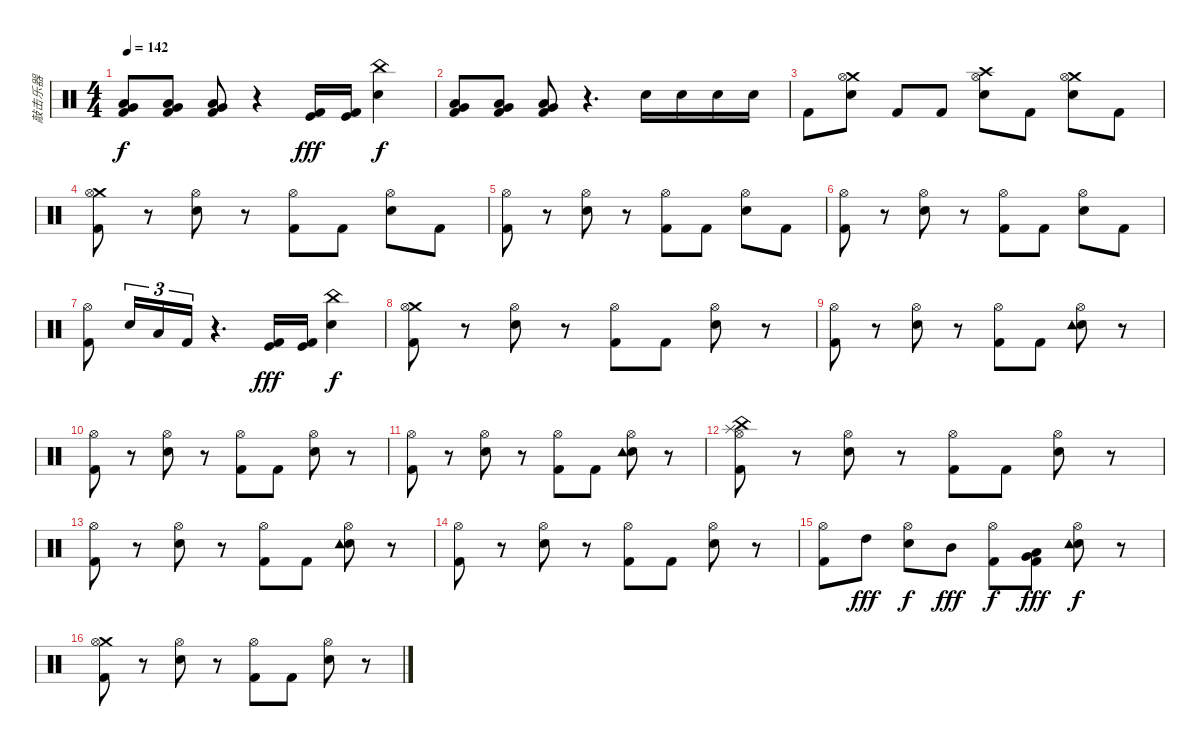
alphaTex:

\track ("敲击乐器" "敲击乐器") {instrument percussion}
\staff {score}
\articulation defaults
\ts (4 4)
\tempo 142
\clef neutral
\ks c
("Low Tom (hit)" "Very Low Tom (hit)" "Kick (hit) 2").8{dy f} ("Low Tom (hit)" "Very Low Tom (hit)" "Kick (hit) 2").8 ("Low Tom (hit)" "Very Low Tom (hit)" "Kick (hit) 2").8 r.4 ("Kick (hit)" "Kick (hit) 2").16{dy fff} ("Kick (hit)" "Kick (hit) 2").16 ("Snare (hit) 2" "China (hit)").4{dy f} |
("Very Low Tom (hit)" "Low Floor Tom (hit)" "Kick (hit) 2").8 ("Very Low Tom (hit)" "Low Floor Tom (hit)" "Kick (hit) 2").8 ("Very Low Tom (hit)" "Low Floor Tom (hit)" "Kick (hit) 2").8 r.4{d} "Snare (hit) 2".16 "Snare (hit) 2".16 "Snare (hit) 2".16 "Snare (hit) 2".16 |
"Kick (hit) 2".8 ("Snare (hit) 2" "Crash medium (hit)" "Hi-Hat (open)").8 "Kick (hit) 2".8 "Kick (hit) 2".8 ("Snare (hit) 2" "Crash high (hit)" "Hi-Hat (open)").8 "Kick (hit) 2".8 ("Snare (hit) 2" "Crash medium (hit)" "Hi-Hat (open)").8 "Kick (hit) 2".8 |
("Crash medium (hit)" "Hi-Hat (open)" "Kick (hit) 2").8 r.8 ("Snare (hit) 2" "Hi-Hat (open)").8 r.8 ("Hi-Hat (open)" "Kick (hit) 2").8 "Kick (hit) 2".8 ("Snare (hit) 2" "Hi-Hat (open)").8 "Kick (hit) 2".8 |
("Hi-Hat (open)" "Kick (hit) 2").8 r.8 ("Snare (hit) 2" "Hi-Hat (open)").8 r.8 ("Hi-Hat (open)" "Kick (hit) 2").8 "Kick (hit) 2".8 ("Snare (hit) 2" "Hi-Hat (open)").8 "Kick (hit) 2".8 |
("Hi-Hat (open)" "Kick (hit) 2").8 r.8 ("Snare (hit) 2" "Hi-Hat (open)").8 r.8 ("Hi-Hat (open)" "Kick (hit) 2").8 "Kick (hit) 2".8 ("Snare (hit) 2" "Hi-Hat (open)").8 "Kick (hit) 2".8 |
("Hi-Hat (open)" "Kick (hit) 2").8 "Snare (hit) 2".16{tu (3 2)} "Low Floor Tom (hit)".16{tu (3 2)} "Kick (hit) 2".16{tu (3 2)} r.4{d} ("Kick (hit)" "Kick (hit) 2").16{dy fff} ("Kick (hit)" "Kick (hit) 2").16 ("Snare (hit) 2" "China (hit)").4{dy f} |
("Crash medium (hit)" "Hi-Hat (open)" "Kick (hit) 2").8 r.8 ("Snare (hit) 2" "Hi-Hat (open)").8 r.8 ("Hi-Hat (open)" "Kick (hit) 2").8 "Kick (hit) 2".8 ("Snare (hit) 2" "Hi-Hat (open)").8 r.8 |
("Hi-Hat (open)" "Kick (hit) 2").8 r.8 ("Snare (hit) 2" "Hi-Hat (open)").8 r.8 ("Hi-Hat (open)" "Kick (hit) 2").8 "Kick (hit) 2".8 ("Snare (hit) 2" "Tambourine (hit)" "Hi-Hat (open)").8 r.8 |
("Hi-Hat (open)" "Kick (hit) 2").8 r.8 ("Snare (hit) 2" "Hi-Hat (open)").8 r.8 ("Hi-Hat (open)" "Kick (hit) 2").8 "Kick (hit) 2".8 ("Snare (hit) 2" "Hi-Hat (open)").8 r.8 |
("Hi-Hat (open)" "Kick (hit) 2").8 r.8 ("Snare (hit) 2" "Hi-Hat (open)").8 r.8 ("Hi-Hat (open)" "Kick (hit) 2").8 "Kick (hit) 2".8 ("Snare (hit) 2" "Tambourine (hit)" "Hi-Hat (open)").8 r.8 |
("China (hit)" "Splash (hit)" "Hi-Hat (open)" "Kick (hit) 2").8 r.8 ("Snare (hit) 2" "Hi-Hat (open)").8 r.8 ("Hi-Hat (open)" "Kick (hit) 2").8 "Kick (hit) 2".8 ("Snare (hit) 2" "Hi-Hat (open)").8 r.8 |
("Hi-Hat (open)" "Kick (hit) 2").8 r.8 ("Snare (hit) 2" "Hi-Hat (open)").8 r.8 ("Hi-Hat (open)" "Kick (hit) 2").8 "Kick (hit) 2".8 ("Snare (hit) 2" "Tambourine (hit)" "Hi-Hat (open)").8 r.8 |
("Hi-Hat (open)" "Kick (hit) 2").8 r.8 ("Snare (hit) 2" "Hi-Hat (open)").8 r.8 ("Hi-Hat (open)" "Kick (hit) 2").8 "Kick (hit) 2".8 ("Snare (hit) 2" "Hi-Hat (open)").8 r.8 |
("Hi-Hat (open)" "Kick (hit) 2").8 "High Tom (hit)".8{dy fff} ("Snare (hit) 2" "Hi-Hat (open)").8{dy f} "Mid Tom (hit)".8{dy fff} ("Hi-Hat (open)" "Kick (hit) 2").8{dy f} ("Very Low Tom (hit)" "Low Floor Tom (hit)" "Kick (hit) 2").8{dy fff} ("Snare (hit) 2" "Tambourine (hit)" "Hi-Hat (open)").8{dy f} r.8 |
("Crash medium (hit)" "Hi-Hat (open)" "Kick (hit) 2").8 r.8 ("Snare (hit) 2" "Hi-Hat (open)").8 r.8 ("Hi-Hat (open)" "Kick (hit) 2").8 "Kick (hit) 2".8 ("Snare (hit) 2" "Hi-Hat (open)").8 r.8
